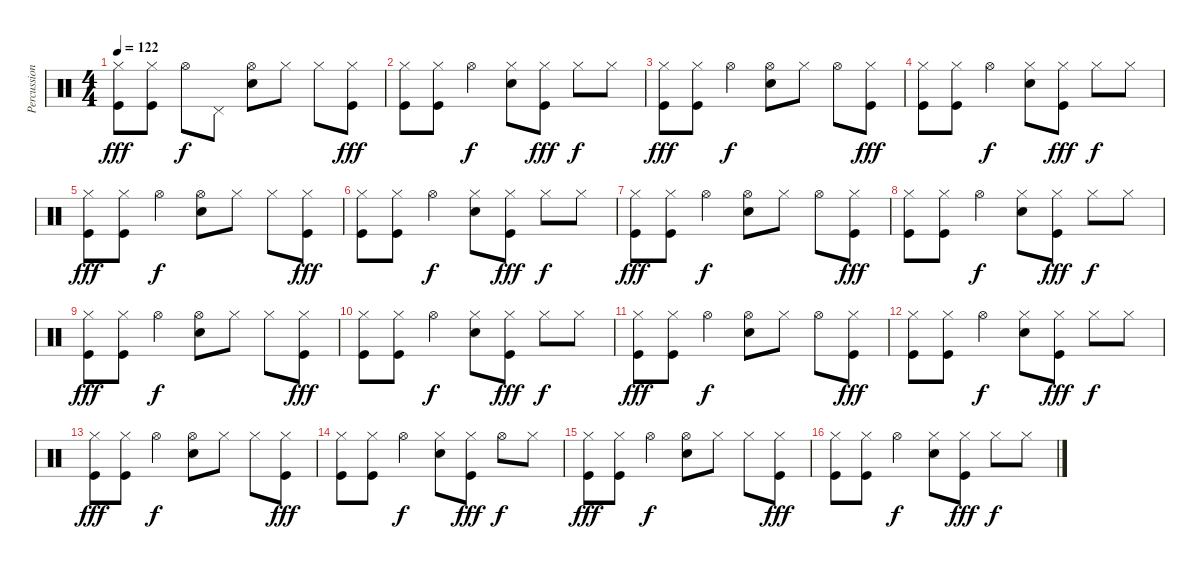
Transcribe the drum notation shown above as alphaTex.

\track ("Percussion" "Percussion") {instrument percussion}
\staff {score}
\articulation defaults
\ts (4 4)
\tempo 122
\clef neutral
\ks c
("Hi-Hat (closed)" "Kick (hit)").8{dy fff} ("Hi-Hat (closed)" "Kick (hit)").8 "Hi-Hat (open)".8{dy f} "Pedal Hi-Hat (hit)".8 ("Hi-Hat (open)" "Snare (hit) 2").8 "Hi-Hat (closed)".8 "Hi-Hat (closed)".8 ("Hi-Hat (closed)" "Kick (hit)").8{dy fff} |
("Hi-Hat (closed)" "Kick (hit)").8 ("Hi-Hat (closed)" "Kick (hit)").8 "Hi-Hat (open)".4{dy f} ("Hi-Hat (closed)" "Snare (hit) 2").8 ("Hi-Hat (closed)" "Kick (hit)").8{dy fff} "Hi-Hat (closed)".8{dy f} "Hi-Hat (closed)".8 |
("Hi-Hat (closed)" "Kick (hit)").8{dy fff} ("Hi-Hat (closed)" "Kick (hit)").8 "Hi-Hat (open)".4{dy f} ("Hi-Hat (open)" "Snare (hit) 2").8 "Hi-Hat (closed)".8 "Hi-Hat (open)".8 ("Hi-Hat (closed)" "Kick (hit)").8{dy fff} |
("Hi-Hat (closed)" "Kick (hit)").8 ("Hi-Hat (closed)" "Kick (hit)").8 "Hi-Hat (open)".4{dy f} ("Hi-Hat (closed)" "Snare (hit) 2").8 ("Hi-Hat (closed)" "Kick (hit)").8{dy fff} "Hi-Hat (closed)".8{dy f} "Hi-Hat (closed)".8 |
("Hi-Hat (closed)" "Kick (hit)").8{dy fff} ("Hi-Hat (closed)" "Kick (hit)").8 "Hi-Hat (open)".4{dy f} ("Hi-Hat (open)" "Snare (hit) 2").8 "Hi-Hat (closed)".8 "Hi-Hat (closed)".8 ("Hi-Hat (closed)" "Kick (hit)").8{dy fff} |
("Hi-Hat (closed)" "Kick (hit)").8 ("Hi-Hat (closed)" "Kick (hit)").8 "Hi-Hat (open)".4{dy f} ("Hi-Hat (closed)" "Snare (hit) 2").8 ("Hi-Hat (closed)" "Kick (hit)").8{dy fff} "Hi-Hat (closed)".8{dy f} "Hi-Hat (closed)".8 |
("Hi-Hat (closed)" "Kick (hit)").8{dy fff} ("Hi-Hat (closed)" "Kick (hit)").8 "Hi-Hat (open)".4{dy f} ("Hi-Hat (open)" "Snare (hit) 2").8 "Hi-Hat (closed)".8 "Hi-Hat (open)".8 ("Hi-Hat (closed)" "Kick (hit)").8{dy fff} |
("Hi-Hat (closed)" "Kick (hit)").8 ("Hi-Hat (closed)" "Kick (hit)").8 "Hi-Hat (open)".4{dy f} ("Hi-Hat (closed)" "Snare (hit) 2").8 ("Hi-Hat (closed)" "Kick (hit)").8{dy fff} "Hi-Hat (closed)".8{dy f} "Hi-Hat (closed)".8 |
("Hi-Hat (closed)" "Kick (hit)").8{dy fff} ("Hi-Hat (closed)" "Kick (hit)").8 "Hi-Hat (open)".4{dy f} ("Hi-Hat (open)" "Snare (hit) 2").8 "Hi-Hat (closed)".8 "Hi-Hat (closed)".8 ("Hi-Hat (closed)" "Kick (hit)").8{dy fff} |
("Hi-Hat (closed)" "Kick (hit)").8 ("Hi-Hat (closed)" "Kick (hit)").8 "Hi-Hat (open)".4{dy f} ("Hi-Hat (closed)" "Snare (hit) 2").8 ("Hi-Hat (closed)" "Kick (hit)").8{dy fff} "Hi-Hat (closed)".8{dy f} "Hi-Hat (closed)".8 |
("Hi-Hat (closed)" "Kick (hit)").8{dy fff} ("Hi-Hat (closed)" "Kick (hit)").8 "Hi-Hat (open)".4{dy f} ("Hi-Hat (open)" "Snare (hit) 2").8 "Hi-Hat (closed)".8 "Hi-Hat (open)".8 ("Hi-Hat (closed)" "Kick (hit)").8{dy fff} |
("Hi-Hat (closed)" "Kick (hit)").8 ("Hi-Hat (closed)" "Kick (hit)").8 "Hi-Hat (open)".4{dy f} ("Hi-Hat (closed)" "Snare (hit) 2").8 ("Hi-Hat (closed)" "Kick (hit)").8{dy fff} "Hi-Hat (closed)".8{dy f} "Hi-Hat (closed)".8 |
("Hi-Hat (closed)" "Kick (hit)").8{dy fff} ("Hi-Hat (closed)" "Kick (hit)").8 "Hi-Hat (open)".4{dy f} ("Hi-Hat (open)" "Snare (hit) 2").8 "Hi-Hat (closed)".8 "Hi-Hat (closed)".8 ("Hi-Hat (closed)" "Kick (hit)").8{dy fff} |
("Hi-Hat (closed)" "Kick (hit)").8 ("Hi-Hat (closed)" "Kick (hit)").8 "Hi-Hat (open)".4{dy f} ("Hi-Hat (closed)" "Snare (hit) 2").8 ("Hi-Hat (closed)" "Kick (hit)").8{dy fff} "Hi-Hat (open)".8{dy f} "Hi-Hat (closed)".8 |
("Hi-Hat (closed)" "Kick (hit)").8{dy fff} ("Hi-Hat (closed)" "Kick (hit)").8 "Hi-Hat (open)".4{dy f} ("Hi-Hat (open)" "Snare (hit) 2").8 "Hi-Hat (closed)".8 "Hi-Hat (closed)".8 ("Hi-Hat (closed)" "Kick (hit)").8{dy fff} |
("Hi-Hat (closed)" "Kick (hit)").8 ("Hi-Hat (closed)" "Kick (hit)").8 "Hi-Hat (open)".4{dy f} ("Hi-Hat (closed)" "Snare (hit) 2").8 ("Hi-Hat (closed)" "Kick (hit)").8{dy fff} "Hi-Hat (closed)".8{dy f} "Hi-Hat (closed)".8
